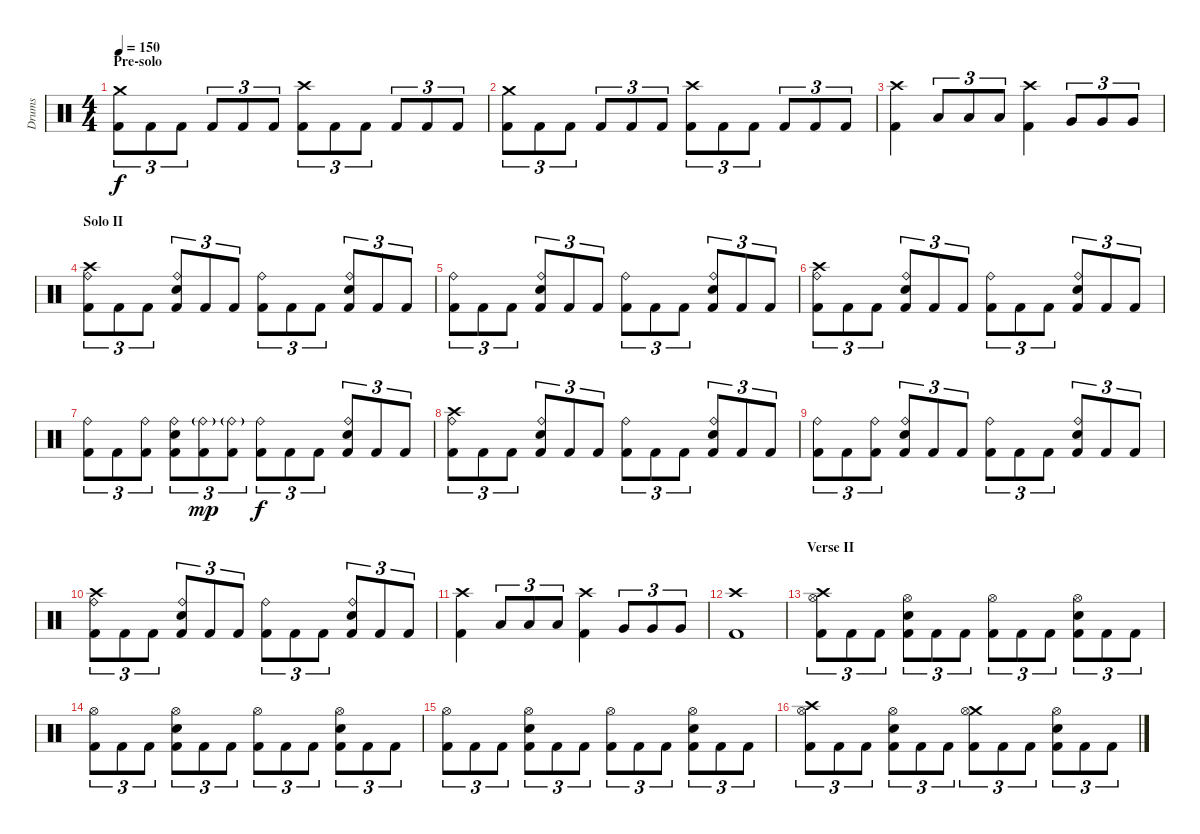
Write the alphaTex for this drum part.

\track ("Drums" "Drums") {instrument percussion}
\staff {score}
\articulation defaults
\ts (4 4)
\section ("" "Pre-solo")
\tempo 150
\clef neutral
\ks c
("Kick (hit) 2" "Crash medium (hit)").8{tu (3 2) dy f} "Kick (hit) 2".8{tu (3 2)} "Kick (hit) 2".8{tu (3 2)} "Kick (hit) 2".8{tu (3 2)} "Kick (hit) 2".8{tu (3 2)} "Kick (hit) 2".8{tu (3 2)} ("Kick (hit) 2" "Crash high (hit)").8{tu (3 2)} "Kick (hit) 2".8{tu (3 2)} "Kick (hit) 2".8{tu (3 2)} "Kick (hit) 2".8{tu (3 2)} "Kick (hit) 2".8{tu (3 2)} "Kick (hit) 2".8{tu (3 2)} |
("Kick (hit) 2" "Crash medium (hit)").8{tu (3 2)} "Kick (hit) 2".8{tu (3 2)} "Kick (hit) 2".8{tu (3 2)} "Kick (hit) 2".8{tu (3 2)} "Kick (hit) 2".8{tu (3 2)} "Kick (hit) 2".8{tu (3 2)} ("Kick (hit) 2" "Crash high (hit)").8{tu (3 2)} "Kick (hit) 2".8{tu (3 2)} "Kick (hit) 2".8{tu (3 2)} "Kick (hit) 2".8{tu (3 2)} "Kick (hit) 2".8{tu (3 2)} "Kick (hit) 2".8{tu (3 2)} |
("Kick (hit) 2" "Crash high (hit)").4 "Low Tom (hit)".8{tu (3 2)} "Low Tom (hit)".8{tu (3 2)} "Low Tom (hit)".8{tu (3 2)} ("Kick (hit) 2" "Crash high (hit)").4 "Very Low Tom (hit)".8{tu (3 2)} "Very Low Tom (hit)".8{tu (3 2)} "Very Low Tom (hit)".8{tu (3 2)} |
\section ("" "Solo II")
("Kick (hit) 2" "Crash high (hit)" "Ride (bell)").8{tu (3 2)} "Kick (hit) 2".8{tu (3 2)} "Kick (hit) 2".8{tu (3 2)} ("Kick (hit) 2" "Electric Snare (hit)" "Ride (bell)").8{tu (3 2)} "Kick (hit) 2".8{tu (3 2)} "Kick (hit) 2".8{tu (3 2)} ("Kick (hit) 2" "Ride (bell)").8{tu (3 2)} "Kick (hit) 2".8{tu (3 2)} "Kick (hit) 2".8{tu (3 2)} ("Kick (hit) 2" "Electric Snare (hit)" "Ride (bell)").8{tu (3 2)} "Kick (hit) 2".8{tu (3 2)} "Kick (hit) 2".8{tu (3 2)} |
("Kick (hit) 2" "Ride (bell)").8{tu (3 2)} "Kick (hit) 2".8{tu (3 2)} "Kick (hit) 2".8{tu (3 2)} ("Kick (hit) 2" "Electric Snare (hit)" "Ride (bell)").8{tu (3 2)} "Kick (hit) 2".8{tu (3 2)} "Kick (hit) 2".8{tu (3 2)} ("Kick (hit) 2" "Ride (bell)").8{tu (3 2)} "Kick (hit) 2".8{tu (3 2)} "Kick (hit) 2".8{tu (3 2)} ("Kick (hit) 2" "Electric Snare (hit)" "Ride (bell)").8{tu (3 2)} "Kick (hit) 2".8{tu (3 2)} "Kick (hit) 2".8{tu (3 2)} |
("Kick (hit) 2" "Crash high (hit)" "Ride (bell)").8{tu (3 2)} "Kick (hit) 2".8{tu (3 2)} "Kick (hit) 2".8{tu (3 2)} ("Kick (hit) 2" "Electric Snare (hit)" "Ride (bell)").8{tu (3 2)} "Kick (hit) 2".8{tu (3 2)} "Kick (hit) 2".8{tu (3 2)} ("Kick (hit) 2" "Ride (bell)").8{tu (3 2)} "Kick (hit) 2".8{tu (3 2)} "Kick (hit) 2".8{tu (3 2)} ("Kick (hit) 2" "Electric Snare (hit)" "Ride (bell)").8{tu (3 2)} "Kick (hit) 2".8{tu (3 2)} "Kick (hit) 2".8{tu (3 2)} |
("Kick (hit) 2" "Ride (bell)").8{tu (3 2)} "Kick (hit) 2".8{tu (3 2)} ("Kick (hit) 2" "Ride (bell)").8{tu (3 2)} ("Kick (hit) 2" "Electric Snare (hit)" "Ride (bell)").8{tu (3 2)} ("Kick (hit) 2" "Ride (bell)"{g}).8{tu (3 2) dy mp} ("Kick (hit) 2" "Ride (bell)"{g}).8{tu (3 2)} ("Kick (hit) 2" "Ride (bell)").8{tu (3 2) dy f} "Kick (hit) 2".8{tu (3 2)} "Kick (hit) 2".8{tu (3 2)} ("Kick (hit) 2" "Electric Snare (hit)" "Ride (bell)").8{tu (3 2)} "Kick (hit) 2".8{tu (3 2)} "Kick (hit) 2".8{tu (3 2)} |
("Kick (hit) 2" "Crash high (hit)" "Ride (bell)").8{tu (3 2)} "Kick (hit) 2".8{tu (3 2)} "Kick (hit) 2".8{tu (3 2)} ("Kick (hit) 2" "Electric Snare (hit)" "Ride (bell)").8{tu (3 2)} "Kick (hit) 2".8{tu (3 2)} "Kick (hit) 2".8{tu (3 2)} ("Kick (hit) 2" "Ride (bell)").8{tu (3 2)} "Kick (hit) 2".8{tu (3 2)} "Kick (hit) 2".8{tu (3 2)} ("Kick (hit) 2" "Electric Snare (hit)" "Ride (bell)").8{tu (3 2)} "Kick (hit) 2".8{tu (3 2)} "Kick (hit) 2".8{tu (3 2)} |
("Kick (hit) 2" "Ride (bell)").8{tu (3 2)} "Kick (hit) 2".8{tu (3 2)} ("Kick (hit) 2" "Ride (bell)").8{tu (3 2)} ("Kick (hit) 2" "Electric Snare (hit)" "Ride (bell)").8{tu (3 2)} "Kick (hit) 2".8{tu (3 2)} "Kick (hit) 2".8{tu (3 2)} ("Kick (hit) 2" "Ride (bell)").8{tu (3 2)} "Kick (hit) 2".8{tu (3 2)} "Kick (hit) 2".8{tu (3 2)} ("Kick (hit) 2" "Electric Snare (hit)" "Ride (bell)").8{tu (3 2)} "Kick (hit) 2".8{tu (3 2)} "Kick (hit) 2".8{tu (3 2)} |
("Kick (hit) 2" "Crash high (hit)" "Ride (bell)").8{tu (3 2)} "Kick (hit) 2".8{tu (3 2)} "Kick (hit) 2".8{tu (3 2)} ("Kick (hit) 2" "Electric Snare (hit)" "Ride (bell)").8{tu (3 2)} "Kick (hit) 2".8{tu (3 2)} "Kick (hit) 2".8{tu (3 2)} ("Kick (hit) 2" "Ride (bell)").8{tu (3 2)} "Kick (hit) 2".8{tu (3 2)} "Kick (hit) 2".8{tu (3 2)} ("Kick (hit) 2" "Electric Snare (hit)" "Ride (bell)").8{tu (3 2)} "Kick (hit) 2".8{tu (3 2)} "Kick (hit) 2".8{tu (3 2)} |
("Kick (hit) 2" "Crash high (hit)").4 "Low Tom (hit)".8{tu (3 2)} "Low Tom (hit)".8{tu (3 2)} "Low Tom (hit)".8{tu (3 2)} ("Kick (hit) 2" "Crash high (hit)").4 "Very Low Tom (hit)".8{tu (3 2)} "Very Low Tom (hit)".8{tu (3 2)} "Very Low Tom (hit)".8{tu (3 2)} |
("Kick (hit) 2" "Crash high (hit)").1 |
\section ("" "Verse II")
("Kick (hit) 2" "Crash high (hit)" "Hi-Hat (open)").8{tu (3 2)} "Kick (hit) 2".8{tu (3 2)} "Kick (hit) 2".8{tu (3 2)} ("Kick (hit) 2" "Electric Snare (hit)" "Hi-Hat (open)").8{tu (3 2)} "Kick (hit) 2".8{tu (3 2)} "Kick (hit) 2".8{tu (3 2)} ("Kick (hit) 2" "Hi-Hat (open)").8{tu (3 2)} "Kick (hit) 2".8{tu (3 2)} "Kick (hit) 2".8{tu (3 2)} ("Kick (hit) 2" "Electric Snare (hit)" "Hi-Hat (open)").8{tu (3 2)} "Kick (hit) 2".8{tu (3 2)} "Kick (hit) 2".8{tu (3 2)} |
("Kick (hit) 2" "Hi-Hat (open)").8{tu (3 2)} "Kick (hit) 2".8{tu (3 2)} "Kick (hit) 2".8{tu (3 2)} ("Kick (hit) 2" "Electric Snare (hit)" "Hi-Hat (open)").8{tu (3 2)} "Kick (hit) 2".8{tu (3 2)} "Kick (hit) 2".8{tu (3 2)} ("Kick (hit) 2" "Hi-Hat (open)").8{tu (3 2)} "Kick (hit) 2".8{tu (3 2)} "Kick (hit) 2".8{tu (3 2)} ("Kick (hit) 2" "Electric Snare (hit)" "Hi-Hat (open)").8{tu (3 2)} "Kick (hit) 2".8{tu (3 2)} "Kick (hit) 2".8{tu (3 2)} |
("Kick (hit) 2" "Hi-Hat (open)").8{tu (3 2)} "Kick (hit) 2".8{tu (3 2)} "Kick (hit) 2".8{tu (3 2)} ("Kick (hit) 2" "Electric Snare (hit)" "Hi-Hat (open)").8{tu (3 2)} "Kick (hit) 2".8{tu (3 2)} "Kick (hit) 2".8{tu (3 2)} ("Kick (hit) 2" "Hi-Hat (open)").8{tu (3 2)} "Kick (hit) 2".8{tu (3 2)} "Kick (hit) 2".8{tu (3 2)} ("Kick (hit) 2" "Electric Snare (hit)" "Hi-Hat (open)").8{tu (3 2)} "Kick (hit) 2".8{tu (3 2)} "Kick (hit) 2".8{tu (3 2)} |
("Kick (hit) 2" "Crash high (hit)" "Hi-Hat (open)").8{tu (3 2)} "Kick (hit) 2".8{tu (3 2)} "Kick (hit) 2".8{tu (3 2)} ("Kick (hit) 2" "Electric Snare (hit)" "Hi-Hat (open)").8{tu (3 2)} "Kick (hit) 2".8{tu (3 2)} "Kick (hit) 2".8{tu (3 2)} ("Kick (hit) 2" "Crash medium (hit)" "Hi-Hat (open)").8{tu (3 2)} "Kick (hit) 2".8{tu (3 2)} "Kick (hit) 2".8{tu (3 2)} ("Kick (hit) 2" "Electric Snare (hit)" "Hi-Hat (open)").8{tu (3 2)} "Kick (hit) 2".8{tu (3 2)} "Kick (hit) 2".8{tu (3 2)}
